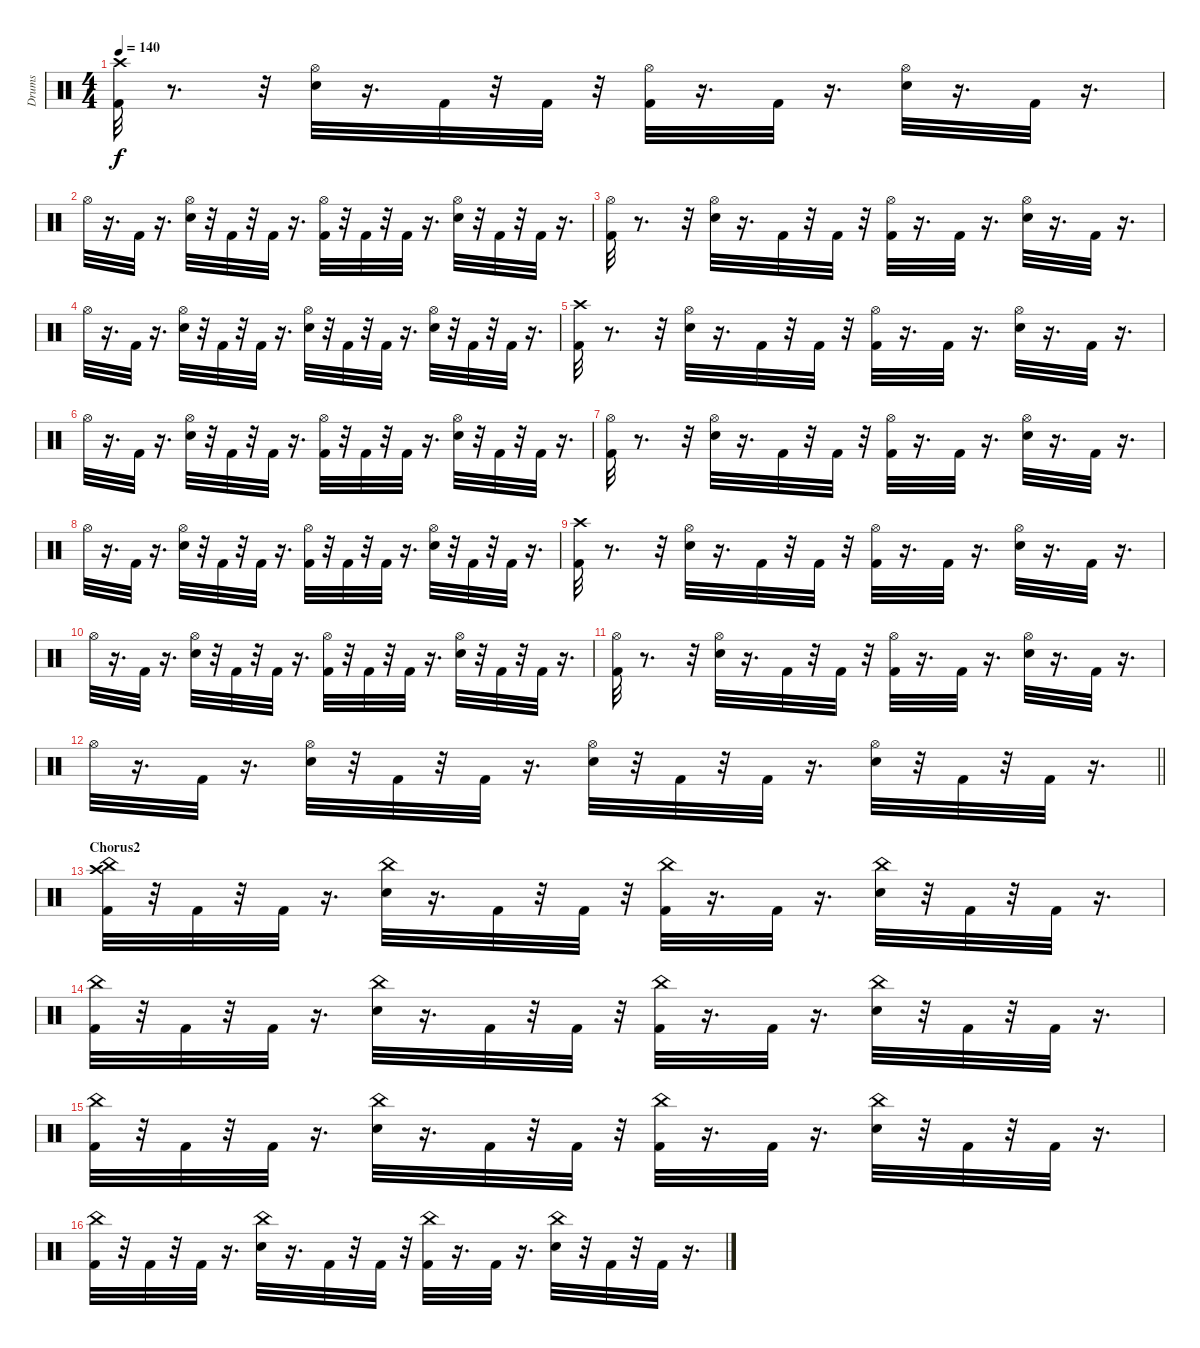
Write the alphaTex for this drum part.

\track ("Drums" "Drums") {instrument percussion}
\staff {score}
\articulation defaults
\ts (4 4)
\tempo 140
\clef neutral
\ks c
("Kick (hit) 2" "Crash high (hit)").32{dy f} r.8{d} r.32 ("Snare (hit) 2" "Hi-Hat (open)").32 r.16{d} "Kick (hit) 2".32 r.32 "Kick (hit) 2".32 r.32 ("Kick (hit) 2" "Hi-Hat (open)").32 r.16{d} "Kick (hit) 2".32 r.16{d} ("Snare (hit) 2" "Hi-Hat (open)").32 r.16{d} "Kick (hit) 2".32 r.16{d} |
"Hi-Hat (open)".32 r.16{d} "Kick (hit) 2".32 r.16{d} ("Snare (hit) 2" "Hi-Hat (open)").32 r.32 "Kick (hit) 2".32 r.32 "Kick (hit) 2".32 r.16{d} ("Kick (hit) 2" "Hi-Hat (open)").32 r.32 "Kick (hit) 2".32 r.32 "Kick (hit) 2".32 r.16{d} ("Snare (hit) 2" "Hi-Hat (open)").32 r.32 "Kick (hit) 2".32 r.32 "Kick (hit) 2".32 r.16{d} |
("Kick (hit) 2" "Hi-Hat (open)").32 r.8{d} r.32 ("Snare (hit) 2" "Hi-Hat (open)").32 r.16{d} "Kick (hit) 2".32 r.32 "Kick (hit) 2".32 r.32 ("Kick (hit) 2" "Hi-Hat (open)").32 r.16{d} "Kick (hit) 2".32 r.16{d} ("Snare (hit) 2" "Hi-Hat (open)").32 r.16{d} "Kick (hit) 2".32 r.16{d} |
"Hi-Hat (open)".32 r.16{d} "Kick (hit) 2".32 r.16{d} ("Snare (hit) 2" "Hi-Hat (open)").32 r.32 "Kick (hit) 2".32 r.32 "Kick (hit) 2".32 r.16{d} ("Snare (hit) 2" "Hi-Hat (open)").32 r.32 "Kick (hit) 2".32 r.32 "Kick (hit) 2".32 r.16{d} ("Snare (hit) 2" "Hi-Hat (open)").32 r.32 "Kick (hit) 2".32 r.32 "Kick (hit) 2".32 r.16{d} |
("Kick (hit) 2" "Crash high (hit)").32 r.8{d} r.32 ("Snare (hit) 2" "Hi-Hat (open)").32 r.16{d} "Kick (hit) 2".32 r.32 "Kick (hit) 2".32 r.32 ("Kick (hit) 2" "Hi-Hat (open)").32 r.16{d} "Kick (hit) 2".32 r.16{d} ("Snare (hit) 2" "Hi-Hat (open)").32 r.16{d} "Kick (hit) 2".32 r.16{d} |
"Hi-Hat (open)".32 r.16{d} "Kick (hit) 2".32 r.16{d} ("Snare (hit) 2" "Hi-Hat (open)").32 r.32 "Kick (hit) 2".32 r.32 "Kick (hit) 2".32 r.16{d} ("Kick (hit) 2" "Hi-Hat (open)").32 r.32 "Kick (hit) 2".32 r.32 "Kick (hit) 2".32 r.16{d} ("Snare (hit) 2" "Hi-Hat (open)").32 r.32 "Kick (hit) 2".32 r.32 "Kick (hit) 2".32 r.16{d} |
("Kick (hit) 2" "Hi-Hat (open)").32 r.8{d} r.32 ("Snare (hit) 2" "Hi-Hat (open)").32 r.16{d} "Kick (hit) 2".32 r.32 "Kick (hit) 2".32 r.32 ("Kick (hit) 2" "Hi-Hat (open)").32 r.16{d} "Kick (hit) 2".32 r.16{d} ("Snare (hit) 2" "Hi-Hat (open)").32 r.16{d} "Kick (hit) 2".32 r.16{d} |
"Hi-Hat (open)".32 r.16{d} "Kick (hit) 2".32 r.16{d} ("Snare (hit) 2" "Hi-Hat (open)").32 r.32 "Kick (hit) 2".32 r.32 "Kick (hit) 2".32 r.16{d} ("Kick (hit) 2" "Hi-Hat (open)").32 r.32 "Kick (hit) 2".32 r.32 "Kick (hit) 2".32 r.16{d} ("Snare (hit) 2" "Hi-Hat (open)").32 r.32 "Kick (hit) 2".32 r.32 "Kick (hit) 2".32 r.16{d} |
("Kick (hit) 2" "Crash high (hit)").32 r.8{d} r.32 ("Snare (hit) 2" "Hi-Hat (open)").32 r.16{d} "Kick (hit) 2".32 r.32 "Kick (hit) 2".32 r.32 ("Kick (hit) 2" "Hi-Hat (open)").32 r.16{d} "Kick (hit) 2".32 r.16{d} ("Snare (hit) 2" "Hi-Hat (open)").32 r.16{d} "Kick (hit) 2".32 r.16{d} |
"Hi-Hat (open)".32 r.16{d} "Kick (hit) 2".32 r.16{d} ("Snare (hit) 2" "Hi-Hat (open)").32 r.32 "Kick (hit) 2".32 r.32 "Kick (hit) 2".32 r.16{d} ("Kick (hit) 2" "Hi-Hat (open)").32 r.32 "Kick (hit) 2".32 r.32 "Kick (hit) 2".32 r.16{d} ("Snare (hit) 2" "Hi-Hat (open)").32 r.32 "Kick (hit) 2".32 r.32 "Kick (hit) 2".32 r.16{d} |
("Kick (hit) 2" "Hi-Hat (open)").32 r.8{d} r.32 ("Snare (hit) 2" "Hi-Hat (open)").32 r.16{d} "Kick (hit) 2".32 r.32 "Kick (hit) 2".32 r.32 ("Kick (hit) 2" "Hi-Hat (open)").32 r.16{d} "Kick (hit) 2".32 r.16{d} ("Snare (hit) 2" "Hi-Hat (open)").32 r.16{d} "Kick (hit) 2".32 r.16{d} |
\barLineRight lightlight "Hi-Hat (open)".32
r.16{d} "Kick (hit) 2".32 r.16{d} ("Snare (hit) 2" "Hi-Hat (open)").32 r.32 "Kick (hit) 2".32 r.32 "Kick (hit) 2".32 r.16{d} ("Snare (hit) 2" "Hi-Hat (open)").32 r.32 "Kick (hit) 2".32 r.32 "Kick (hit) 2".32 r.16{d} ("Snare (hit) 2" "Hi-Hat (open)").32 r.32 "Kick (hit) 2".32 r.32 "Kick (hit) 2".32 r.16{d} |
\section ("" "Chorus2")
("Kick (hit) 2" "Crash high (hit)" "China (hit)").32 r.32 "Kick (hit) 2".32 r.32 "Kick (hit) 2".32 r.16{d} ("Snare (hit) 2" "China (hit)").32 r.16{d} "Kick (hit) 2".32 r.32 "Kick (hit) 2".32 r.32 ("Kick (hit) 2" "China (hit)").32 r.16{d} "Kick (hit) 2".32 r.16{d} ("Snare (hit) 2" "China (hit)").32 r.32 "Kick (hit) 2".32 r.32 "Kick (hit) 2".32 r.16{d} |
("Kick (hit) 2" "China (hit)").32 r.32 "Kick (hit) 2".32 r.32 "Kick (hit) 2".32 r.16{d} ("Snare (hit) 2" "China (hit)").32 r.16{d} "Kick (hit) 2".32 r.32 "Kick (hit) 2".32 r.32 ("Kick (hit) 2" "China (hit)").32 r.16{d} "Kick (hit) 2".32 r.16{d} ("Snare (hit) 2" "China (hit)").32 r.32 "Kick (hit) 2".32 r.32 "Kick (hit) 2".32 r.16{d} |
("Kick (hit) 2" "China (hit)").32 r.32 "Kick (hit) 2".32 r.32 "Kick (hit) 2".32 r.16{d} ("Snare (hit) 2" "China (hit)").32 r.16{d} "Kick (hit) 2".32 r.32 "Kick (hit) 2".32 r.32 ("Kick (hit) 2" "China (hit)").32 r.16{d} "Kick (hit) 2".32 r.16{d} ("Snare (hit) 2" "China (hit)").32 r.32 "Kick (hit) 2".32 r.32 "Kick (hit) 2".32 r.16{d} |
("Kick (hit) 2" "China (hit)").32 r.32 "Kick (hit) 2".32 r.32 "Kick (hit) 2".32 r.16{d} ("Snare (hit) 2" "China (hit)").32 r.16{d} "Kick (hit) 2".32 r.32 "Kick (hit) 2".32 r.32 ("Kick (hit) 2" "China (hit)").32 r.16{d} "Kick (hit) 2".32 r.16{d} ("Snare (hit) 2" "China (hit)").32 r.32 "Kick (hit) 2".32 r.32 "Kick (hit) 2".32 r.16{d}
